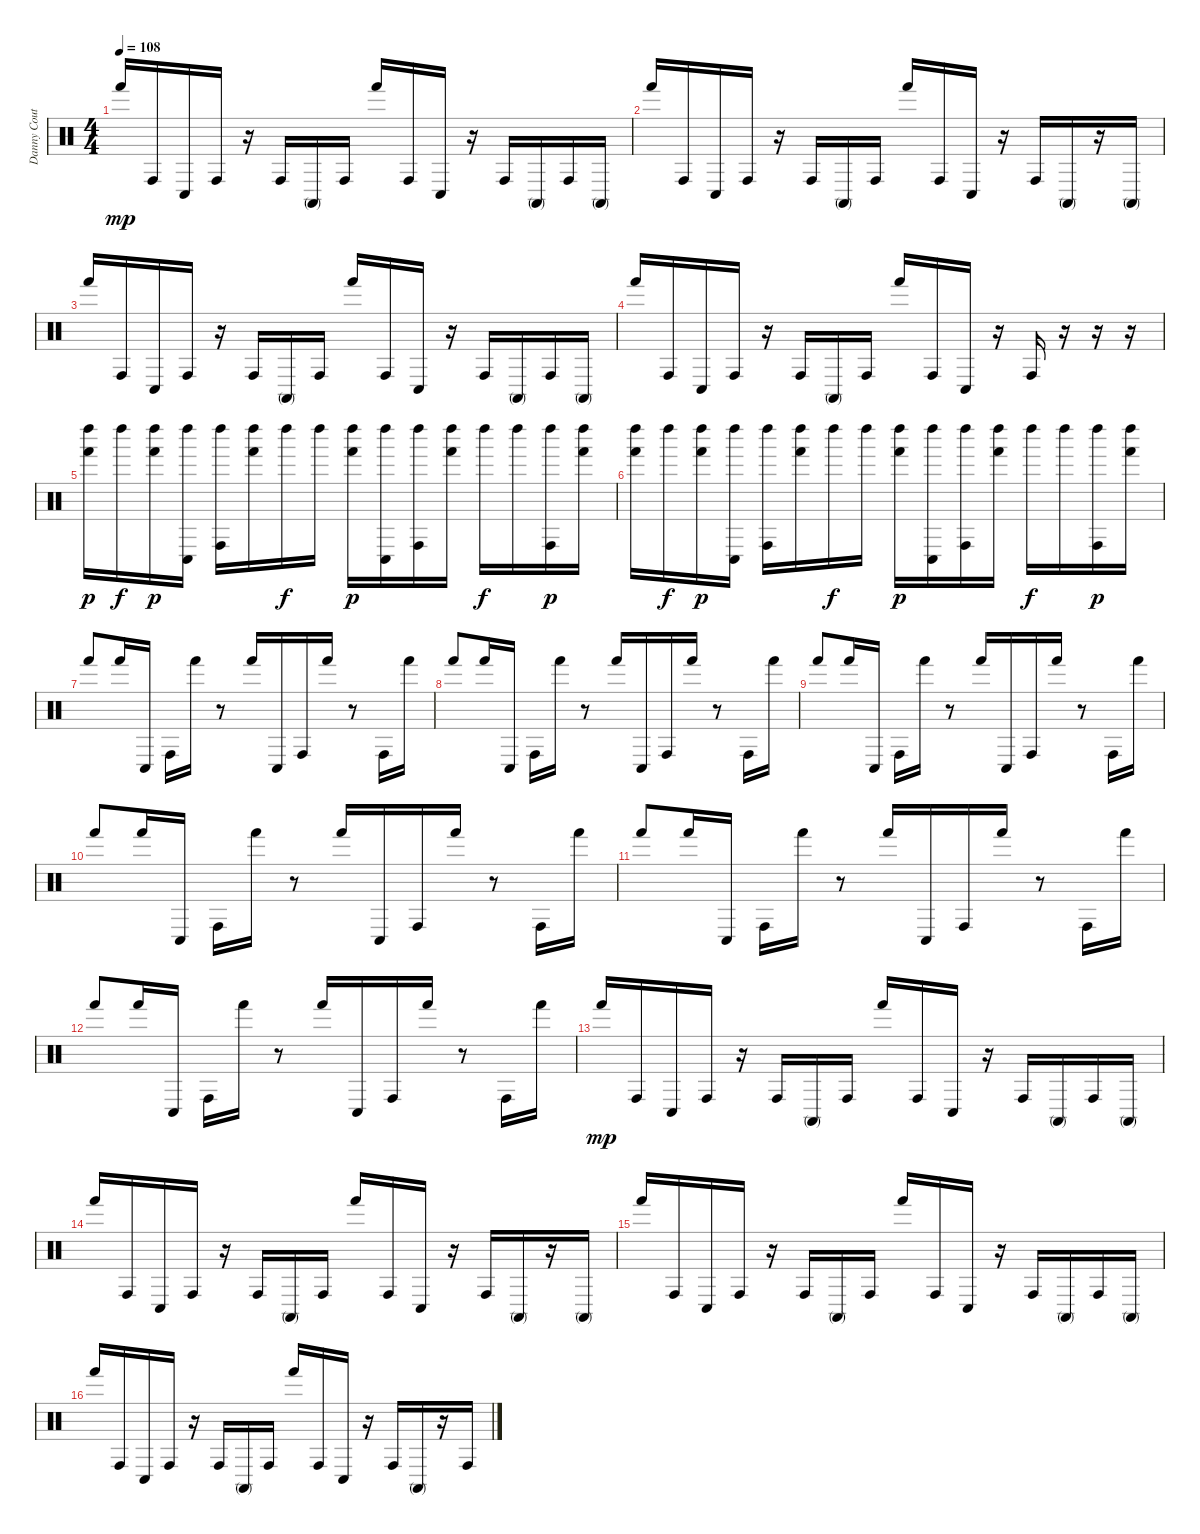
\track ("Danny Couto [Percussion]" "Danny Cout") {instrument percussion}
\staff {score}
\articulation defaults
\ts (4 4)
\tempo 108
\clef neutral
\ks c "Hand (hit)".16{dy mp} "Conga high (hit)".16 "Conga low (hit)".16 "Conga high (hit)".16
r.16 "Conga high (hit)".16 "Conga high (mute)".16 "Conga high (hit)".16 "Hand (hit)".16 "Conga high (hit)".16 "Conga low (hit)".16 r.16 "Conga high (hit)".16 "Conga high (mute)".16 "Conga high (hit)".16 "Conga high (mute)".16 |
"Hand (hit)".16 "Conga high (hit)".16 "Conga low (hit)".16 "Conga high (hit)".16 r.16 "Conga high (hit)".16 "Conga high (mute)".16 "Conga high (hit)".16 "Hand (hit)".16 "Conga high (hit)".16 "Conga low (hit)".16 r.16 "Conga high (hit)".16 "Conga high (mute)".16 r.16 "Conga high (mute)".16 |
"Hand (hit)".16 "Conga high (hit)".16 "Conga low (hit)".16 "Conga high (hit)".16 r.16 "Conga high (hit)".16 "Conga high (mute)".16 "Conga high (hit)".16 "Hand (hit)".16 "Conga high (hit)".16 "Conga low (hit)".16 r.16 "Conga high (hit)".16 "Conga high (mute)".16 "Conga high (hit)".16 "Conga high (mute)".16 |
"Hand (hit)".16 "Conga high (hit)".16 "Conga low (hit)".16 "Conga high (hit)".16 r.16 "Conga high (hit)".16 "Conga high (mute)".16 "Conga high (hit)".16 "Hand (hit)".16 "Conga high (hit)".16 "Conga low (hit)".16 r.16 "Conga high (hit)".16 r.16 r.16 r.16 |
("Left Maraca (hit)" "Hand (hit)").16{dy p} "Left Maraca (hit)".16{dy f} ("Left Maraca (hit)" "Hand (hit)").16{dy p} ("Left Maraca (hit)" "Conga low (hit)").16 ("Left Maraca (hit)" "Conga high (hit)").16 ("Left Maraca (hit)" "Hand (hit)").16 "Left Maraca (hit)".16{dy f} "Left Maraca (hit)".16 ("Left Maraca (hit)" "Hand (hit)").16{dy p} ("Left Maraca (hit)" "Conga low (hit)").16 ("Left Maraca (hit)" "Conga high (hit)").16 ("Left Maraca (hit)" "Hand (hit)").16 "Left Maraca (hit)".16{dy f} "Left Maraca (hit)".16 ("Left Maraca (hit)" "Conga high (hit)").16{dy p} ("Left Maraca (hit)" "Hand (hit)").16 |
("Left Maraca (hit)" "Hand (hit)").16 "Left Maraca (hit)".16{dy f} ("Left Maraca (hit)" "Hand (hit)").16{dy p} ("Left Maraca (hit)" "Conga low (hit)").16 ("Left Maraca (hit)" "Conga high (hit)").16 ("Left Maraca (hit)" "Hand (hit)").16 "Left Maraca (hit)".16{dy f} "Left Maraca (hit)".16 ("Left Maraca (hit)" "Hand (hit)").16{dy p} ("Left Maraca (hit)" "Conga low (hit)").16 ("Left Maraca (hit)" "Conga high (hit)").16 ("Left Maraca (hit)" "Hand (hit)").16 "Left Maraca (hit)".16{dy f} "Left Maraca (hit)".16 ("Left Maraca (hit)" "Conga high (hit)").16{dy p} ("Left Maraca (hit)" "Hand (hit)").16 |
"Hand (hit)".8 "Hand (hit)".16 "Conga low (hit)".16 "Conga high (hit)".16 "Hand (hit)".16 r.8 "Hand (hit)".16 "Conga low (hit)".16 "Conga high (hit)".16 "Hand (hit)".16 r.8 "Conga high (hit)".16 "Hand (hit)".16 |
"Hand (hit)".8 "Hand (hit)".16 "Conga low (hit)".16 "Conga high (hit)".16 "Hand (hit)".16 r.8 "Hand (hit)".16 "Conga low (hit)".16 "Conga high (hit)".16 "Hand (hit)".16 r.8 "Conga high (hit)".16 "Hand (hit)".16 |
"Hand (hit)".8 "Hand (hit)".16 "Conga low (hit)".16 "Conga high (hit)".16 "Hand (hit)".16 r.8 "Hand (hit)".16 "Conga low (hit)".16 "Conga high (hit)".16 "Hand (hit)".16 r.8 "Conga high (hit)".16 "Hand (hit)".16 |
"Hand (hit)".8 "Hand (hit)".16 "Conga low (hit)".16 "Conga high (hit)".16 "Hand (hit)".16 r.8 "Hand (hit)".16 "Conga low (hit)".16 "Conga high (hit)".16 "Hand (hit)".16 r.8 "Conga high (hit)".16 "Hand (hit)".16 |
"Hand (hit)".8 "Hand (hit)".16 "Conga low (hit)".16 "Conga high (hit)".16 "Hand (hit)".16 r.8 "Hand (hit)".16 "Conga low (hit)".16 "Conga high (hit)".16 "Hand (hit)".16 r.8 "Conga high (hit)".16 "Hand (hit)".16 |
"Hand (hit)".8 "Hand (hit)".16 "Conga low (hit)".16 "Conga high (hit)".16 "Hand (hit)".16 r.8 "Hand (hit)".16 "Conga low (hit)".16 "Conga high (hit)".16 "Hand (hit)".16 r.8 "Conga high (hit)".16 "Hand (hit)".16 |
"Hand (hit)".16{dy mp} "Conga high (hit)".16 "Conga low (hit)".16 "Conga high (hit)".16 r.16 "Conga high (hit)".16 "Conga high (mute)".16 "Conga high (hit)".16 "Hand (hit)".16 "Conga high (hit)".16 "Conga low (hit)".16 r.16 "Conga high (hit)".16 "Conga high (mute)".16 "Conga high (hit)".16 "Conga high (mute)".16 |
"Hand (hit)".16 "Conga high (hit)".16 "Conga low (hit)".16 "Conga high (hit)".16 r.16 "Conga high (hit)".16 "Conga high (mute)".16 "Conga high (hit)".16 "Hand (hit)".16 "Conga high (hit)".16 "Conga low (hit)".16 r.16 "Conga high (hit)".16 "Conga high (mute)".16 r.16 "Conga high (mute)".16 |
"Hand (hit)".16 "Conga high (hit)".16 "Conga low (hit)".16 "Conga high (hit)".16 r.16 "Conga high (hit)".16 "Conga high (mute)".16 "Conga high (hit)".16 "Hand (hit)".16 "Conga high (hit)".16 "Conga low (hit)".16 r.16 "Conga high (hit)".16 "Conga high (mute)".16 "Conga high (hit)".16 "Conga high (mute)".16 |
"Hand (hit)".16 "Conga high (hit)".16 "Conga low (hit)".16 "Conga high (hit)".16 r.16 "Conga high (hit)".16 "Conga high (mute)".16 "Conga high (hit)".16 "Hand (hit)".16 "Conga high (hit)".16 "Conga low (hit)".16 r.16 "Conga high (hit)".16 "Conga high (mute)".16 r.16 "Conga high (hit)".16
